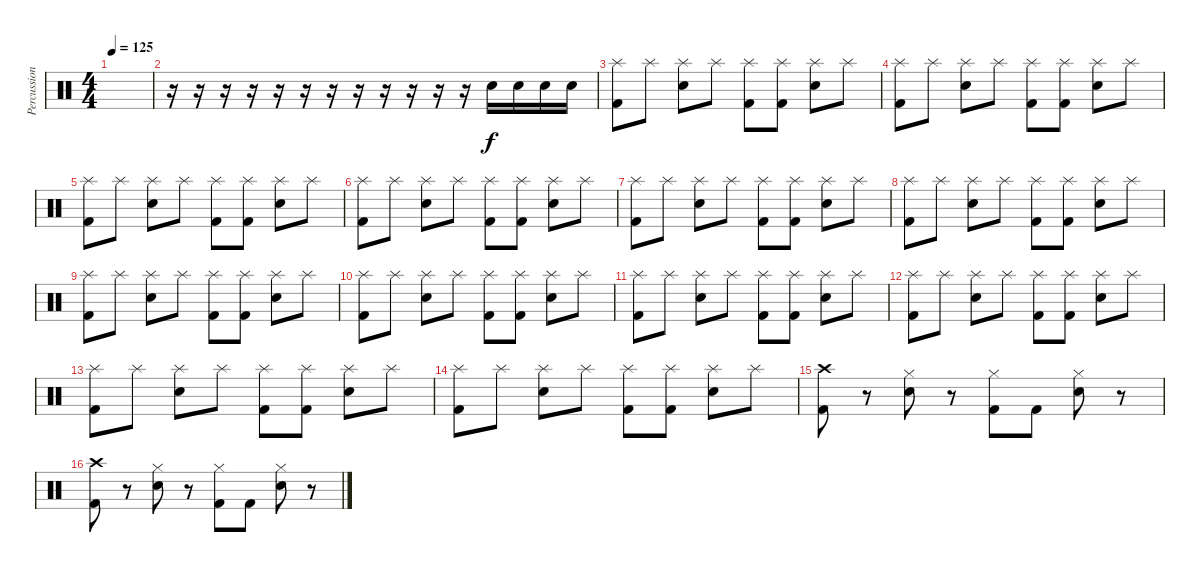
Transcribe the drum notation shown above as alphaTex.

\track ("Percussion" "Percussion") {instrument percussion}
\staff {score}
\articulation defaults
\ts (4 4)
\tempo 125
\clef neutral
\ks c
|
r.16 r.16 r.16 r.16 r.16 r.16 r.16 r.16 r.16 r.16 r.16 r.16 "Electric Snare (hit)".16 "Electric Snare (hit)".16 "Electric Snare (hit)".16 "Electric Snare (hit)".16 |
("Splash (hit)" "Kick (hit) 2").8 "Splash (hit)".8 ("Splash (hit)" "Electric Snare (hit)").8 "Splash (hit)".8 ("Splash (hit)" "Kick (hit) 2").8 ("Splash (hit)" "Kick (hit) 2").8 ("Splash (hit)" "Electric Snare (hit)").8 "Splash (hit)".8 |
("Splash (hit)" "Kick (hit) 2").8 "Splash (hit)".8 ("Splash (hit)" "Electric Snare (hit)").8 "Splash (hit)".8 ("Splash (hit)" "Kick (hit) 2").8 ("Splash (hit)" "Kick (hit) 2").8 ("Splash (hit)" "Electric Snare (hit)").8 "Splash (hit)".8 |
("Splash (hit)" "Kick (hit) 2").8 "Splash (hit)".8 ("Splash (hit)" "Electric Snare (hit)").8 "Splash (hit)".8 ("Splash (hit)" "Kick (hit) 2").8 ("Splash (hit)" "Kick (hit) 2").8 ("Splash (hit)" "Electric Snare (hit)").8 "Splash (hit)".8 |
("Splash (hit)" "Kick (hit) 2").8 "Splash (hit)".8 ("Splash (hit)" "Electric Snare (hit)").8 "Splash (hit)".8 ("Splash (hit)" "Kick (hit) 2").8 ("Splash (hit)" "Kick (hit) 2").8 ("Splash (hit)" "Electric Snare (hit)").8 "Splash (hit)".8 |
("Splash (hit)" "Kick (hit) 2").8 "Splash (hit)".8 ("Splash (hit)" "Electric Snare (hit)").8 "Splash (hit)".8 ("Splash (hit)" "Kick (hit) 2").8 ("Splash (hit)" "Kick (hit) 2").8 ("Splash (hit)" "Electric Snare (hit)").8 "Splash (hit)".8 |
("Splash (hit)" "Kick (hit) 2").8 "Splash (hit)".8 ("Splash (hit)" "Electric Snare (hit)").8 "Splash (hit)".8 ("Splash (hit)" "Kick (hit) 2").8 ("Splash (hit)" "Kick (hit) 2").8 ("Splash (hit)" "Electric Snare (hit)").8 "Splash (hit)".8 |
("Splash (hit)" "Kick (hit) 2").8 "Splash (hit)".8 ("Splash (hit)" "Electric Snare (hit)").8 "Splash (hit)".8 ("Splash (hit)" "Kick (hit) 2").8 ("Splash (hit)" "Kick (hit) 2").8 ("Splash (hit)" "Electric Snare (hit)").8 "Splash (hit)".8 |
("Splash (hit)" "Kick (hit) 2").8 "Splash (hit)".8 ("Splash (hit)" "Electric Snare (hit)").8 "Splash (hit)".8 ("Splash (hit)" "Kick (hit) 2").8 ("Splash (hit)" "Kick (hit) 2").8 ("Splash (hit)" "Electric Snare (hit)").8 "Splash (hit)".8 |
("Splash (hit)" "Kick (hit) 2").8 "Splash (hit)".8 ("Splash (hit)" "Electric Snare (hit)").8 "Splash (hit)".8 ("Splash (hit)" "Kick (hit) 2").8 ("Splash (hit)" "Kick (hit) 2").8 ("Splash (hit)" "Electric Snare (hit)").8 "Splash (hit)".8 |
("Splash (hit)" "Kick (hit) 2").8 "Splash (hit)".8 ("Splash (hit)" "Electric Snare (hit)").8 "Splash (hit)".8 ("Splash (hit)" "Kick (hit) 2").8 ("Splash (hit)" "Kick (hit) 2").8 ("Splash (hit)" "Electric Snare (hit)").8 "Splash (hit)".8 |
("Splash (hit)" "Kick (hit) 2").8 "Splash (hit)".8 ("Splash (hit)" "Electric Snare (hit)").8 "Splash (hit)".8 ("Splash (hit)" "Kick (hit) 2").8 ("Splash (hit)" "Kick (hit) 2").8 ("Splash (hit)" "Electric Snare (hit)").8 "Splash (hit)".8 |
("Splash (hit)" "Kick (hit) 2").8 "Splash (hit)".8 ("Splash (hit)" "Electric Snare (hit)").8 "Splash (hit)".8 ("Splash (hit)" "Kick (hit) 2").8 ("Splash (hit)" "Kick (hit) 2").8 ("Splash (hit)" "Electric Snare (hit)").8 "Splash (hit)".8 |
("Crash high (hit)" "Kick (hit) 2").8 r.8 ("Hi-Hat (closed)" "Electric Snare (hit)").8 r.8 ("Hi-Hat (closed)" "Kick (hit) 2").8 "Kick (hit) 2".8 ("Hi-Hat (closed)" "Electric Snare (hit)").8 r.8 |
("Crash high (hit)" "Kick (hit) 2").8 r.8 ("Hi-Hat (closed)" "Electric Snare (hit)").8 r.8 ("Hi-Hat (closed)" "Kick (hit) 2").8 "Kick (hit) 2".8 ("Hi-Hat (closed)" "Electric Snare (hit)").8 r.8
